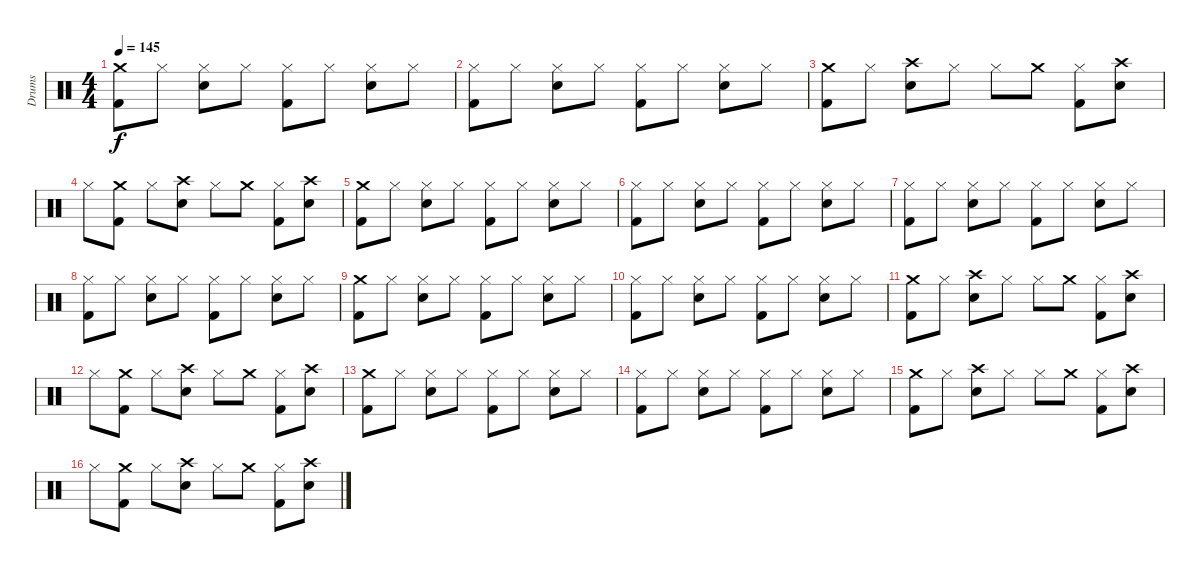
\track ("Drums" "Drums") {instrument percussion}
\staff {score}
\articulation defaults
\ts (4 4)
\tempo 145
\clef neutral
\ks c
("Crash medium (hit)" "Kick (hit) 2").8{dy f} "Hi-Hat (closed)".8 ("Hi-Hat (closed)" "Snare (hit) 2").8 "Hi-Hat (closed)".8 ("Hi-Hat (closed)" "Kick (hit) 2").8 "Hi-Hat (closed)".8 ("Hi-Hat (closed)" "Snare (hit) 2").8 "Hi-Hat (closed)".8 |
("Hi-Hat (closed)" "Kick (hit) 2").8 "Hi-Hat (closed)".8 ("Hi-Hat (closed)" "Snare (hit) 2").8 "Hi-Hat (closed)".8 ("Hi-Hat (closed)" "Kick (hit) 2").8 "Hi-Hat (closed)".8 ("Hi-Hat (closed)" "Snare (hit) 2").8 "Hi-Hat (closed)".8 |
("Crash medium (hit)" "Kick (hit) 2").8 "Hi-Hat (closed)".8 ("Crash high (hit)" "Snare (hit) 2").8 "Hi-Hat (closed)".8 "Hi-Hat (closed)".8 "Crash medium (hit)".8 ("Hi-Hat (closed)" "Kick (hit) 2").8 ("Crash high (hit)" "Snare (hit) 2").8 |
"Hi-Hat (closed)".8 ("Crash medium (hit)" "Kick (hit) 2").8 "Hi-Hat (closed)".8 ("Crash high (hit)" "Snare (hit) 2").8 "Hi-Hat (closed)".8 "Crash medium (hit)".8 ("Hi-Hat (closed)" "Kick (hit) 2").8 ("Crash high (hit)" "Snare (hit) 2").8 |
("Crash medium (hit)" "Kick (hit) 2").8{volume 13} "Hi-Hat (closed)".8 ("Hi-Hat (closed)" "Snare (hit) 2").8 "Hi-Hat (closed)".8 ("Hi-Hat (closed)" "Kick (hit) 2").8 "Hi-Hat (closed)".8 ("Hi-Hat (closed)" "Snare (hit) 2").8 "Hi-Hat (closed)".8 |
("Hi-Hat (closed)" "Kick (hit) 2").8 "Hi-Hat (closed)".8 ("Hi-Hat (closed)" "Snare (hit) 2").8 "Hi-Hat (closed)".8 ("Hi-Hat (closed)" "Kick (hit) 2").8 "Hi-Hat (closed)".8 ("Hi-Hat (closed)" "Snare (hit) 2").8 "Hi-Hat (closed)".8 |
("Hi-Hat (closed)" "Kick (hit) 2").8 "Hi-Hat (closed)".8 ("Hi-Hat (closed)" "Snare (hit) 2").8 "Hi-Hat (closed)".8 ("Hi-Hat (closed)" "Kick (hit) 2").8 "Hi-Hat (closed)".8 ("Hi-Hat (closed)" "Snare (hit) 2").8 "Hi-Hat (closed)".8 |
("Hi-Hat (closed)" "Kick (hit) 2").8 "Hi-Hat (closed)".8 ("Hi-Hat (closed)" "Snare (hit) 2").8 "Hi-Hat (closed)".8 ("Hi-Hat (closed)" "Kick (hit) 2").8 "Hi-Hat (closed)".8 ("Hi-Hat (closed)" "Snare (hit) 2").8 "Hi-Hat (closed)".8 |
("Crash medium (hit)" "Kick (hit) 2").8 "Hi-Hat (closed)".8 ("Hi-Hat (closed)" "Snare (hit) 2").8 "Hi-Hat (closed)".8 ("Hi-Hat (closed)" "Kick (hit) 2").8 "Hi-Hat (closed)".8 ("Hi-Hat (closed)" "Snare (hit) 2").8 "Hi-Hat (closed)".8 |
("Hi-Hat (closed)" "Kick (hit) 2").8 "Hi-Hat (closed)".8 ("Hi-Hat (closed)" "Snare (hit) 2").8 "Hi-Hat (closed)".8 ("Hi-Hat (closed)" "Kick (hit) 2").8 "Hi-Hat (closed)".8 ("Hi-Hat (closed)" "Snare (hit) 2").8 "Hi-Hat (closed)".8 |
("Crash medium (hit)" "Kick (hit) 2").8 "Hi-Hat (closed)".8 ("Crash high (hit)" "Snare (hit) 2").8 "Hi-Hat (closed)".8 "Hi-Hat (closed)".8 "Crash medium (hit)".8 ("Hi-Hat (closed)" "Kick (hit) 2").8 ("Crash high (hit)" "Snare (hit) 2").8 |
"Hi-Hat (closed)".8 ("Crash medium (hit)" "Kick (hit) 2").8 "Hi-Hat (closed)".8 ("Crash high (hit)" "Snare (hit) 2").8 "Hi-Hat (closed)".8 "Crash medium (hit)".8 ("Hi-Hat (closed)" "Kick (hit) 2").8 ("Crash high (hit)" "Snare (hit) 2").8 |
("Crash medium (hit)" "Kick (hit) 2").8 "Hi-Hat (closed)".8 ("Hi-Hat (closed)" "Snare (hit) 2").8 "Hi-Hat (closed)".8 ("Hi-Hat (closed)" "Kick (hit) 2").8 "Hi-Hat (closed)".8 ("Hi-Hat (closed)" "Snare (hit) 2").8 "Hi-Hat (closed)".8 |
("Hi-Hat (closed)" "Kick (hit) 2").8 "Hi-Hat (closed)".8 ("Hi-Hat (closed)" "Snare (hit) 2").8 "Hi-Hat (closed)".8 ("Hi-Hat (closed)" "Kick (hit) 2").8 "Hi-Hat (closed)".8 ("Hi-Hat (closed)" "Snare (hit) 2").8 "Hi-Hat (closed)".8 |
("Crash medium (hit)" "Kick (hit) 2").8 "Hi-Hat (closed)".8 ("Crash high (hit)" "Snare (hit) 2").8 "Hi-Hat (closed)".8 "Hi-Hat (closed)".8 "Crash medium (hit)".8 ("Hi-Hat (closed)" "Kick (hit) 2").8 ("Crash high (hit)" "Snare (hit) 2").8 |
"Hi-Hat (closed)".8 ("Crash medium (hit)" "Kick (hit) 2").8 "Hi-Hat (closed)".8 ("Crash high (hit)" "Snare (hit) 2").8 "Hi-Hat (closed)".8 "Crash medium (hit)".8 ("Hi-Hat (closed)" "Kick (hit) 2").8 ("Crash high (hit)" "Snare (hit) 2").8
